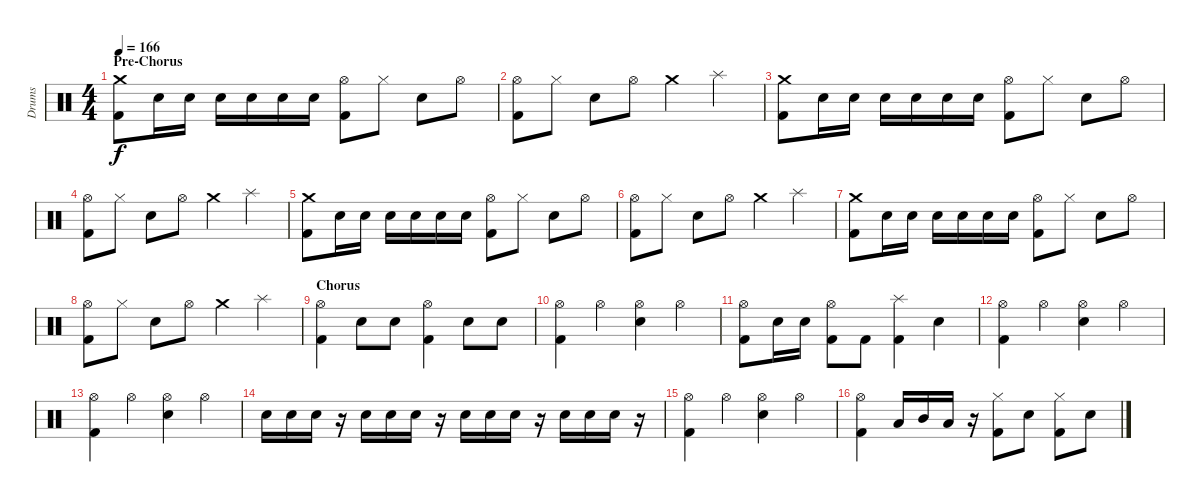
\track ("Drums" "Drums") {instrument percussion}
\staff {score}
\articulation defaults
\ts (4 4)
\section ("" "Pre-Chorus")
\tempo 166
\clef neutral
\ks c
("Crash medium (hit)" "Kick (hit) 2").8{dy f} "Snare (hit) 2".16 "Snare (hit) 2".16 "Electric Snare (hit)".16 "Electric Snare (hit)".16 "Snare (hit) 2".16 "Snare (hit) 2".16 ("Hi-Hat (open)" "Kick (hit) 2").8 "Hi-Hat (closed)".8 "Electric Snare (hit)".8 "Hi-Hat (open)".8 |
("Hi-Hat (open)" "Kick (hit) 2").8 "Hi-Hat (closed)".8 "Electric Snare (hit)".8 "Hi-Hat (open)".8 "Crash medium (hit)".4 "Splash (hit)".4 |
("Crash medium (hit)" "Kick (hit) 2").8 "Snare (hit) 2".16 "Snare (hit) 2".16 "Electric Snare (hit)".16 "Electric Snare (hit)".16 "Snare (hit) 2".16 "Snare (hit) 2".16 ("Hi-Hat (open)" "Kick (hit) 2").8 "Hi-Hat (closed)".8 "Electric Snare (hit)".8 "Hi-Hat (open)".8 |
("Hi-Hat (open)" "Kick (hit) 2").8 "Hi-Hat (closed)".8 "Electric Snare (hit)".8 "Hi-Hat (open)".8 "Crash medium (hit)".4 "Splash (hit)".4 |
("Crash medium (hit)" "Kick (hit) 2").8 "Snare (hit) 2".16 "Snare (hit) 2".16 "Electric Snare (hit)".16 "Electric Snare (hit)".16 "Snare (hit) 2".16 "Snare (hit) 2".16 ("Hi-Hat (open)" "Kick (hit) 2").8 "Hi-Hat (closed)".8 "Electric Snare (hit)".8 "Hi-Hat (open)".8 |
("Hi-Hat (open)" "Kick (hit) 2").8 "Hi-Hat (closed)".8 "Electric Snare (hit)".8 "Hi-Hat (open)".8 "Crash medium (hit)".4 "Splash (hit)".4 |
("Crash medium (hit)" "Kick (hit) 2").8 "Snare (hit) 2".16 "Snare (hit) 2".16 "Electric Snare (hit)".16 "Electric Snare (hit)".16 "Snare (hit) 2".16 "Snare (hit) 2".16 ("Hi-Hat (open)" "Kick (hit) 2").8 "Hi-Hat (closed)".8 "Electric Snare (hit)".8 "Hi-Hat (open)".8 |
("Hi-Hat (open)" "Kick (hit) 2").8 "Hi-Hat (closed)".8 "Electric Snare (hit)".8 "Hi-Hat (open)".8 "Crash medium (hit)".4 "Splash (hit)".4 |
\section ("" "Chorus")
("Hi-Hat (open)" "Kick (hit) 2").4 "Snare (hit) 2".8 "Electric Snare (hit)".8 ("Hi-Hat (open)" "Kick (hit) 2").4 "Electric Snare (hit)".8 "Snare (hit) 2".8 |
("Hi-Hat (open)" "Kick (hit) 2").4 "Hi-Hat (open)".4 ("Hi-Hat (open)" "Electric Snare (hit)").4 "Hi-Hat (open)".4 |
("Hi-Hat (open)" "Kick (hit) 2").8 "Snare (hit) 2".16 "Electric Snare (hit)".16 ("Hi-Hat (open)" "Kick (hit) 2").8 "Kick (hit) 2".8 ("Splash (hit)" "Kick (hit) 2").4 "Electric Snare (hit)".4 |
("Hi-Hat (open)" "Kick (hit) 2").4 "Hi-Hat (open)".4 ("Electric Snare (hit)" "Hi-Hat (open)").4 "Hi-Hat (open)".4 |
("Hi-Hat (open)" "Kick (hit) 2").4 "Hi-Hat (open)".4 ("Electric Snare (hit)" "Hi-Hat (open)").4 "Hi-Hat (open)".4 |
"Electric Snare (hit)".16 "Electric Snare (hit)".16 "Electric Snare (hit)".16 r.16 "Snare (hit) 2".16 "Snare (hit) 2".16 "Snare (hit) 2".16 r.16 "Snare (hit) 2".16 "Snare (hit) 2".16 "Snare (hit) 2".16 r.16 "Electric Snare (hit)".16 "Electric Snare (hit)".16 "Electric Snare (hit)".16 r.16 |
("Hi-Hat (open)" "Kick (hit) 2").4 "Hi-Hat (open)".4 ("Electric Snare (hit)" "Hi-Hat (open)").4 "Hi-Hat (open)".4 |
("Hi-Hat (open)" "Kick (hit) 2").4 "Low Tom (hit)".16 "Mid Tom (hit)".16 "Low Tom (hit)".16 r.16 ("Hi-Hat (closed)" "Kick (hit) 2").8 "Electric Snare (hit)".8 ("Hi-Hat (closed)" "Kick (hit) 2").8 "Electric Snare (hit)".8
